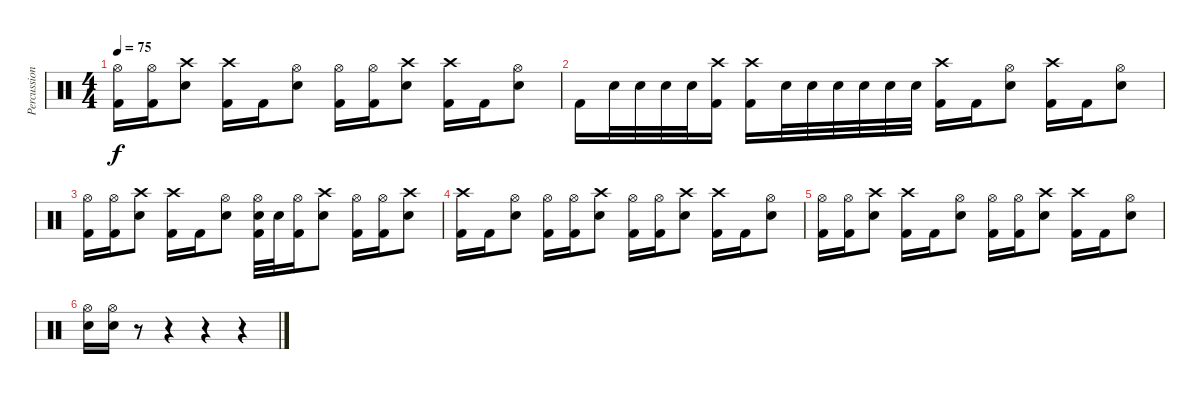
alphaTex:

\track ("Percussion" "Percussion") {instrument percussion}
\staff {score}
\articulation defaults
\ts (4 4)
\tempo 75
\clef neutral
\ks c
("Hi-Hat (open)" "Kick (hit) 2").16{dy f} ("Hi-Hat (open)" "Kick (hit) 2").16 ("Crash high (hit)" "Snare (hit) 2").8 ("Crash high (hit)" "Kick (hit) 2").16 "Kick (hit) 2".16 ("Hi-Hat (open)" "Snare (hit) 2").8 ("Hi-Hat (open)" "Kick (hit) 2").16 ("Hi-Hat (open)" "Kick (hit) 2").16 ("Crash high (hit)" "Snare (hit) 2").8 ("Crash high (hit)" "Kick (hit) 2").16 "Kick (hit) 2".16 ("Hi-Hat (open)" "Snare (hit) 2").8 |
"Kick (hit) 2".16 "Snare (hit) 2".32 "Snare (hit) 2".32 "Snare (hit) 2".32 "Snare (hit) 2".32 ("Crash high (hit)" "Kick (hit) 2").16 ("Crash high (hit)" "Kick (hit) 2").16 "Snare (hit) 2".32 "Snare (hit) 2".32 "Snare (hit) 2".32 "Snare (hit) 2".32 "Snare (hit) 2".32 "Snare (hit) 2".32 ("Crash high (hit)" "Kick (hit) 2").16 "Kick (hit) 2".16 ("Hi-Hat (open)" "Snare (hit) 2").8 ("Crash high (hit)" "Kick (hit) 2").16 "Kick (hit) 2".16 ("Hi-Hat (open)" "Snare (hit) 2").8 |
("Hi-Hat (open)" "Kick (hit) 2").16 ("Hi-Hat (open)" "Kick (hit) 2").16 ("Crash high (hit)" "Snare (hit) 2").8 ("Crash high (hit)" "Kick (hit) 2").16 "Kick (hit) 2".16 ("Hi-Hat (open)" "Snare (hit) 2").8 ("Hi-Hat (open)" "Snare (hit) 2" "Kick (hit) 2").32 "Snare (hit) 2".32 ("Hi-Hat (open)" "Kick (hit) 2").16 ("Crash high (hit)" "Snare (hit) 2").8 ("Hi-Hat (open)" "Kick (hit) 2").16 ("Hi-Hat (open)" "Kick (hit) 2").16 ("Crash high (hit)" "Snare (hit) 2").8 |
("Crash high (hit)" "Kick (hit) 2").16 "Kick (hit) 2".16 ("Hi-Hat (open)" "Snare (hit) 2").8 ("Hi-Hat (open)" "Kick (hit) 2").16 ("Hi-Hat (open)" "Kick (hit) 2").16 ("Crash high (hit)" "Snare (hit) 2").8 ("Hi-Hat (open)" "Kick (hit) 2").16 ("Hi-Hat (open)" "Kick (hit) 2").16 ("Crash high (hit)" "Snare (hit) 2").8 ("Crash high (hit)" "Kick (hit) 2").16 "Kick (hit) 2".16 ("Hi-Hat (open)" "Snare (hit) 2").8 |
("Hi-Hat (open)" "Kick (hit) 2").16 ("Hi-Hat (open)" "Kick (hit) 2").16 ("Crash high (hit)" "Snare (hit) 2").8 ("Crash high (hit)" "Kick (hit) 2").16 "Kick (hit) 2".16 ("Hi-Hat (open)" "Snare (hit) 2").8 ("Hi-Hat (open)" "Kick (hit) 2").16 ("Hi-Hat (open)" "Kick (hit) 2").16 ("Crash high (hit)" "Snare (hit) 2").8 ("Crash high (hit)" "Kick (hit) 2").16 "Kick (hit) 2".16 ("Hi-Hat (open)" "Snare (hit) 2").8 |
("Hi-Hat (open)" "Snare (hit) 2").16 ("Hi-Hat (open)" "Snare (hit) 2").16 r.8 r.4 r.4 r.4
